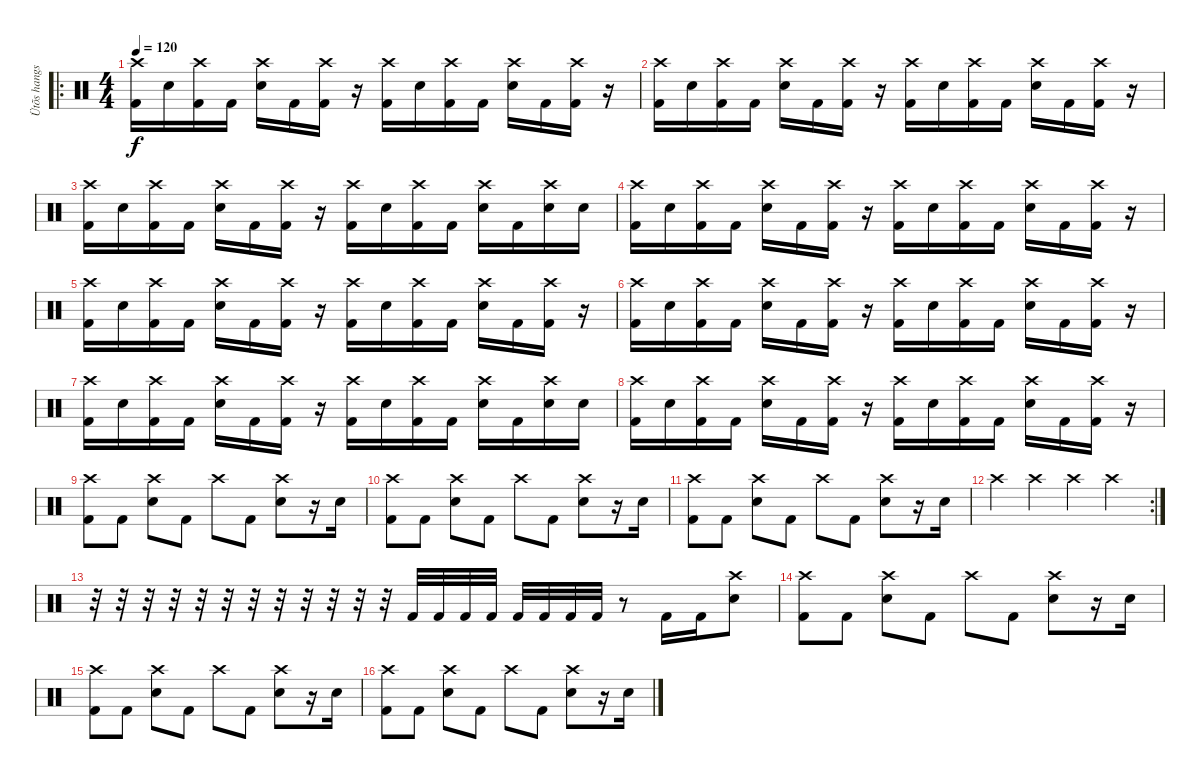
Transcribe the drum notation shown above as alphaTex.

\track ("Ütõs hangszer" "Ütõs hangs") {instrument percussion}
\staff {score}
\articulation defaults
\ro
\ts (4 4)
\tempo 120
\clef neutral
\ks c
("Crash high (hit)" "Kick (hit) 2").16{dy f} "Electric Snare (hit)".16 ("Crash high (hit)" "Kick (hit) 2").16 "Kick (hit) 2".16 ("Crash high (hit)" "Electric Snare (hit)").16 "Kick (hit) 2".16 ("Crash high (hit)" "Kick (hit) 2").16 r.16 ("Crash high (hit)" "Kick (hit) 2").16 "Electric Snare (hit)".16 ("Crash high (hit)" "Kick (hit) 2").16 "Kick (hit) 2".16 ("Crash high (hit)" "Electric Snare (hit)").16 "Kick (hit) 2".16 ("Crash high (hit)" "Kick (hit) 2").16 r.16 |
("Crash high (hit)" "Kick (hit) 2").16 "Electric Snare (hit)".16 ("Crash high (hit)" "Kick (hit) 2").16 "Kick (hit) 2".16 ("Crash high (hit)" "Electric Snare (hit)").16 "Kick (hit) 2".16 ("Crash high (hit)" "Kick (hit) 2").16 r.16 ("Crash high (hit)" "Kick (hit) 2").16 "Electric Snare (hit)".16 ("Crash high (hit)" "Kick (hit) 2").16 "Kick (hit) 2".16 ("Crash high (hit)" "Electric Snare (hit)").16 "Kick (hit) 2".16 ("Crash high (hit)" "Kick (hit) 2").16 r.16 |
("Crash high (hit)" "Kick (hit) 2").16 "Electric Snare (hit)".16 ("Crash high (hit)" "Kick (hit) 2").16 "Kick (hit) 2".16 ("Crash high (hit)" "Electric Snare (hit)").16 "Kick (hit) 2".16 ("Crash high (hit)" "Kick (hit) 2").16 r.16 ("Crash high (hit)" "Kick (hit) 2").16 "Electric Snare (hit)".16 ("Crash high (hit)" "Kick (hit) 2").16 "Kick (hit) 2".16 ("Crash high (hit)" "Electric Snare (hit)").16 "Kick (hit) 2".16 ("Crash high (hit)" "Electric Snare (hit)").16 "Electric Snare (hit)".16 |
("Crash high (hit)" "Kick (hit) 2").16 "Electric Snare (hit)".16 ("Crash high (hit)" "Kick (hit) 2").16 "Kick (hit) 2".16 ("Crash high (hit)" "Electric Snare (hit)").16 "Kick (hit) 2".16 ("Crash high (hit)" "Kick (hit) 2").16 r.16 ("Crash high (hit)" "Kick (hit) 2").16 "Electric Snare (hit)".16 ("Crash high (hit)" "Kick (hit) 2").16 "Kick (hit) 2".16 ("Crash high (hit)" "Electric Snare (hit)").16 "Kick (hit) 2".16 ("Crash high (hit)" "Kick (hit) 2").16 r.16 |
("Crash high (hit)" "Kick (hit) 2").16 "Electric Snare (hit)".16 ("Crash high (hit)" "Kick (hit) 2").16 "Kick (hit) 2".16 ("Crash high (hit)" "Electric Snare (hit)").16 "Kick (hit) 2".16 ("Crash high (hit)" "Kick (hit) 2").16 r.16 ("Crash high (hit)" "Kick (hit) 2").16 "Electric Snare (hit)".16 ("Crash high (hit)" "Kick (hit) 2").16 "Kick (hit) 2".16 ("Crash high (hit)" "Electric Snare (hit)").16 "Kick (hit) 2".16 ("Crash high (hit)" "Kick (hit) 2").16 r.16 |
("Crash high (hit)" "Kick (hit) 2").16 "Electric Snare (hit)".16 ("Crash high (hit)" "Kick (hit) 2").16 "Kick (hit) 2".16 ("Crash high (hit)" "Electric Snare (hit)").16 "Kick (hit) 2".16 ("Crash high (hit)" "Kick (hit) 2").16 r.16 ("Crash high (hit)" "Kick (hit) 2").16 "Electric Snare (hit)".16 ("Crash high (hit)" "Kick (hit) 2").16 "Kick (hit) 2".16 ("Crash high (hit)" "Electric Snare (hit)").16 "Kick (hit) 2".16 ("Crash high (hit)" "Kick (hit) 2").16 r.16 |
("Crash high (hit)" "Kick (hit) 2").16 "Electric Snare (hit)".16 ("Crash high (hit)" "Kick (hit) 2").16 "Kick (hit) 2".16 ("Crash high (hit)" "Electric Snare (hit)").16 "Kick (hit) 2".16 ("Crash high (hit)" "Kick (hit) 2").16 r.16 ("Crash high (hit)" "Kick (hit) 2").16 "Electric Snare (hit)".16 ("Crash high (hit)" "Kick (hit) 2").16 "Kick (hit) 2".16 ("Crash high (hit)" "Electric Snare (hit)").16 "Kick (hit) 2".16 ("Crash high (hit)" "Electric Snare (hit)").16 "Electric Snare (hit)".16 |
("Crash high (hit)" "Kick (hit) 2").16 "Electric Snare (hit)".16 ("Crash high (hit)" "Kick (hit) 2").16 "Kick (hit) 2".16 ("Crash high (hit)" "Electric Snare (hit)").16 "Kick (hit) 2".16 ("Crash high (hit)" "Kick (hit) 2").16 r.16 ("Crash high (hit)" "Kick (hit) 2").16 "Electric Snare (hit)".16 ("Crash high (hit)" "Kick (hit) 2").16 "Kick (hit) 2".16 ("Crash high (hit)" "Electric Snare (hit)").16 "Kick (hit) 2".16 ("Crash high (hit)" "Kick (hit) 2").16 r.16 |
("Crash high (hit)" "Kick (hit) 2").8 "Kick (hit) 2".8 ("Crash high (hit)" "Electric Snare (hit)").8 "Kick (hit) 2".8 "Crash high (hit)".8 "Kick (hit) 2".8 ("Crash high (hit)" "Electric Snare (hit)").8 r.16 "Electric Snare (hit)".16 |
("Crash high (hit)" "Kick (hit) 2").8 "Kick (hit) 2".8 ("Crash high (hit)" "Electric Snare (hit)").8 "Kick (hit) 2".8 "Crash high (hit)".8 "Kick (hit) 2".8 ("Crash high (hit)" "Electric Snare (hit)").8 r.16 "Electric Snare (hit)".16 |
("Crash high (hit)" "Kick (hit) 2").8 "Kick (hit) 2".8 ("Crash high (hit)" "Electric Snare (hit)").8 "Kick (hit) 2".8 "Crash high (hit)".8 "Kick (hit) 2".8 ("Crash high (hit)" "Electric Snare (hit)").8 r.16 "Electric Snare (hit)".16 |
\rc 2 "Crash high (hit)".4 "Crash high (hit)".4 "Crash high (hit)".4 "Crash high (hit)".4
|
r.32 r.32 r.32 r.32 r.32 r.32 r.32 r.32 r.32 r.32 r.32 r.32 "Kick (hit) 2".32 "Kick (hit) 2".32 "Kick (hit) 2".32 "Kick (hit) 2".32 "Kick (hit) 2".32 "Kick (hit) 2".32 "Kick (hit) 2".32 "Kick (hit) 2".32 r.8 "Kick (hit) 2".16 "Kick (hit) 2".16 ("Crash high (hit)" "Electric Snare (hit)").8 |
("Crash high (hit)" "Kick (hit) 2").8 "Kick (hit) 2".8 ("Crash high (hit)" "Electric Snare (hit)").8 "Kick (hit) 2".8 "Crash high (hit)".8 "Kick (hit) 2".8 ("Crash high (hit)" "Electric Snare (hit)").8 r.16 "Electric Snare (hit)".16 |
("Crash high (hit)" "Kick (hit) 2").8 "Kick (hit) 2".8 ("Crash high (hit)" "Electric Snare (hit)").8 "Kick (hit) 2".8 "Crash high (hit)".8 "Kick (hit) 2".8 ("Crash high (hit)" "Electric Snare (hit)").8 r.16 "Electric Snare (hit)".16 |
("Crash high (hit)" "Kick (hit) 2").8 "Kick (hit) 2".8 ("Crash high (hit)" "Electric Snare (hit)").8 "Kick (hit) 2".8 "Crash high (hit)".8 "Kick (hit) 2".8 ("Crash high (hit)" "Electric Snare (hit)").8 r.16 "Electric Snare (hit)".16
